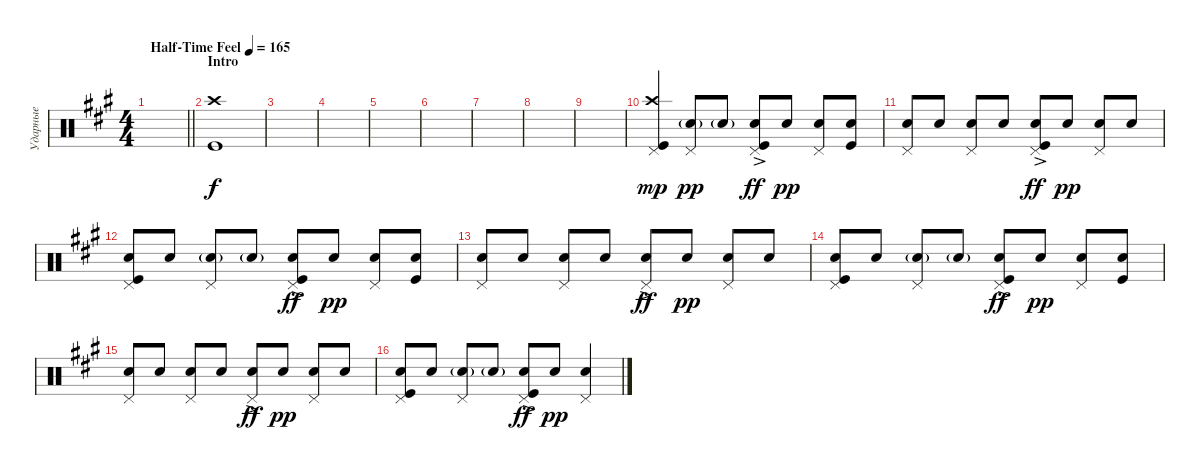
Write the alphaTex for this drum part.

\track ("Ударные" "Ударные") {instrument percussion}
\staff {score}
\articulation defaults
\ts (4 4)
\tempo (165 "Half-Time Feel")
\clef neutral
\barLineRight lightlight
\ks f#minor
|
\section ("" "Intro")
("Kick (hit)" "Crash high (hit)").1 |
|
|
|
|
|
|
|
("Kick (hit)" "Crash high (hit)" "Pedal Hi-Hat (hit)").4{dy mp} ("Pedal Hi-Hat (hit)" "Snare (hit) 2"{g}).8{dy pp} "Snare (hit) 2"{g}.8 ("Pedal Hi-Hat (hit)" "Kick (hit)" "Snare (hit) 2"{ac}).8{dy ff} "Snare (hit) 2".8{dy pp} ("Pedal Hi-Hat (hit)" "Snare (hit) 2").8 ("Kick (hit)" "Snare (hit) 2").8 |
("Pedal Hi-Hat (hit)" "Snare (hit) 2").8 "Snare (hit) 2".8 ("Pedal Hi-Hat (hit)" "Snare (hit) 2").8 "Snare (hit) 2".8 ("Pedal Hi-Hat (hit)" "Kick (hit)" "Snare (hit) 2"{ac}).8{dy ff} "Snare (hit) 2".8{dy pp} ("Pedal Hi-Hat (hit)" "Snare (hit) 2").8 "Snare (hit) 2".8 |
("Pedal Hi-Hat (hit)" "Snare (hit) 2" "Kick (hit)").8 "Snare (hit) 2".8 ("Pedal Hi-Hat (hit)" "Snare (hit) 2"{g}).8 "Snare (hit) 2"{g}.8 ("Pedal Hi-Hat (hit)" "Kick (hit)" "Snare (hit) 2"{ac}).8{dy ff} "Snare (hit) 2".8{dy pp} ("Pedal Hi-Hat (hit)" "Snare (hit) 2").8 ("Kick (hit)" "Snare (hit) 2").8 |
("Pedal Hi-Hat (hit)" "Snare (hit) 2").8 "Snare (hit) 2".8 ("Pedal Hi-Hat (hit)" "Snare (hit) 2").8 "Snare (hit) 2".8 ("Pedal Hi-Hat (hit)" "Snare (hit) 2"{ac}).8{dy ff} "Snare (hit) 2".8{dy pp} ("Pedal Hi-Hat (hit)" "Snare (hit) 2").8 "Snare (hit) 2".8 |
("Pedal Hi-Hat (hit)" "Snare (hit) 2" "Kick (hit)").8 "Snare (hit) 2".8 ("Pedal Hi-Hat (hit)" "Snare (hit) 2"{g}).8 "Snare (hit) 2"{g}.8 ("Pedal Hi-Hat (hit)" "Kick (hit)" "Snare (hit) 2"{ac}).8{dy ff} "Snare (hit) 2".8{dy pp} ("Pedal Hi-Hat (hit)" "Snare (hit) 2").8 ("Kick (hit)" "Snare (hit) 2").8 |
("Pedal Hi-Hat (hit)" "Snare (hit) 2").8 "Snare (hit) 2".8 ("Pedal Hi-Hat (hit)" "Snare (hit) 2").8 "Snare (hit) 2".8 ("Pedal Hi-Hat (hit)" "Snare (hit) 2"{ac}).8{dy ff} "Snare (hit) 2".8{dy pp} ("Pedal Hi-Hat (hit)" "Snare (hit) 2").8 "Snare (hit) 2".8 |
("Pedal Hi-Hat (hit)" "Snare (hit) 2" "Kick (hit)").8 "Snare (hit) 2".8 ("Pedal Hi-Hat (hit)" "Snare (hit) 2"{g}).8 "Snare (hit) 2"{g}.8 ("Pedal Hi-Hat (hit)" "Kick (hit)" "Snare (hit) 2"{ac}).8{dy ff} "Snare (hit) 2".8{dy pp} ("Pedal Hi-Hat (hit)" "Snare (hit) 2").4
